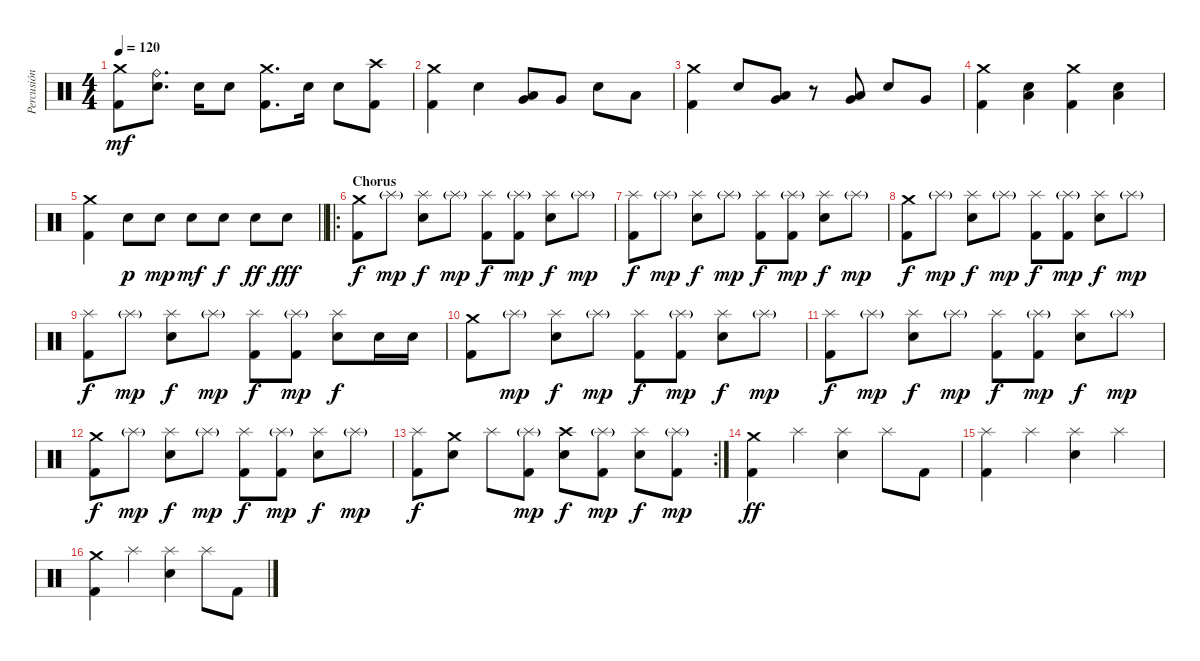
\track ("Percusión" "Percusión") {instrument percussion}
\staff {score}
\articulation defaults
\ts (4 4)
\tempo 120
\clef neutral
\ks c
("Crash medium (hit)" "Kick (hit) 2").8{dy mf} ("Ride (bell)" "Electric Snare (hit)").8{d} "Electric Snare (hit)".16 "Electric Snare (hit)".8 ("Crash medium (hit)" "Kick (hit) 2").8{d} "Electric Snare (hit)".16 "Electric Snare (hit)".8 ("Crash high (hit)" "Kick (hit) 2").8 |
("Crash medium (hit)" "Kick (hit) 2").4 "Electric Snare (hit)".4 ("Very Low Tom (hit)" "Low Tom (hit)").8 "Very Low Tom (hit)".8 "Electric Snare (hit)".8 "Low Tom (hit)".8 |
("Crash medium (hit)" "Kick (hit) 2").4 "Electric Snare (hit)".8 ("Low Tom (hit)" "Very Low Tom (hit)").8 r.8 ("Low Tom (hit)" "Very Low Tom (hit)").8 "Electric Snare (hit)".8 "Very Low Tom (hit)".8 |
("Crash medium (hit)" "Kick (hit) 2").4 ("Low Floor Tom (hit)" "Electric Snare (hit)").4 ("Crash medium (hit)" "Kick (hit) 2").4 ("Low Floor Tom (hit)" "Electric Snare (hit)").4 |
\barLineRight lightlight
("Crash medium (hit)" "Kick (hit) 2").4 "Electric Snare (hit)".8{dy p} "Electric Snare (hit)".8{dy mp} "Electric Snare (hit)".8{dy mf} "Electric Snare (hit)".8{dy f} "Electric Snare (hit)".8{dy ff} "Electric Snare (hit)".8{dy fff} |
\ro
\section ("" "Chorus")
("Crash medium (hit)" "Kick (hit) 2").8{dy f} "Splash (hit)"{g}.8{dy mp} ("Splash (hit)" "Electric Snare (hit)").8{dy f} "Splash (hit)"{g}.8{dy mp} ("Splash (hit)" "Kick (hit) 2").8{dy f} ("Splash (hit)"{g} "Kick (hit) 2").8{dy mp} ("Splash (hit)" "Electric Snare (hit)").8{dy f} "Splash (hit)"{g}.8{dy mp} |
("Splash (hit)" "Kick (hit) 2").8{dy f} "Splash (hit)"{g}.8{dy mp} ("Splash (hit)" "Electric Snare (hit)").8{dy f} "Splash (hit)"{g}.8{dy mp} ("Splash (hit)" "Kick (hit) 2").8{dy f} ("Splash (hit)"{g} "Kick (hit) 2").8{dy mp} ("Splash (hit)" "Electric Snare (hit)").8{dy f} "Splash (hit)"{g}.8{dy mp} |
("Crash medium (hit)" "Kick (hit) 2").8{dy f} "Splash (hit)"{g}.8{dy mp} ("Splash (hit)" "Electric Snare (hit)").8{dy f} "Splash (hit)"{g}.8{dy mp} ("Splash (hit)" "Kick (hit) 2").8{dy f} ("Splash (hit)"{g} "Kick (hit) 2").8{dy mp} ("Splash (hit)" "Electric Snare (hit)").8{dy f} "Splash (hit)"{g}.8{dy mp} |
("Splash (hit)" "Kick (hit) 2").8{dy f} "Splash (hit)"{g}.8{dy mp} ("Splash (hit)" "Electric Snare (hit)").8{dy f} "Splash (hit)"{g}.8{dy mp} ("Splash (hit)" "Kick (hit) 2").8{dy f} ("Splash (hit)"{g} "Kick (hit) 2").8{dy mp} ("Splash (hit)" "Electric Snare (hit)").8{dy f} "Electric Snare (hit)".16 "Electric Snare (hit)".16 |
("Crash medium (hit)" "Kick (hit) 2").8 "Splash (hit)"{g}.8{dy mp} ("Splash (hit)" "Electric Snare (hit)").8{dy f} "Splash (hit)"{g}.8{dy mp} ("Splash (hit)" "Kick (hit) 2").8{dy f} ("Splash (hit)"{g} "Kick (hit) 2").8{dy mp} ("Splash (hit)" "Electric Snare (hit)").8{dy f} "Splash (hit)"{g}.8{dy mp} |
("Splash (hit)" "Kick (hit) 2").8{dy f} "Splash (hit)"{g}.8{dy mp} ("Splash (hit)" "Electric Snare (hit)").8{dy f} "Splash (hit)"{g}.8{dy mp} ("Splash (hit)" "Kick (hit) 2").8{dy f} ("Splash (hit)"{g} "Kick (hit) 2").8{dy mp} ("Splash (hit)" "Electric Snare (hit)").8{dy f} "Splash (hit)"{g}.8{dy mp} |
("Crash medium (hit)" "Kick (hit) 2").8{dy f} "Splash (hit)"{g}.8{dy mp} ("Splash (hit)" "Electric Snare (hit)").8{dy f} "Splash (hit)"{g}.8{dy mp} ("Splash (hit)" "Kick (hit) 2").8{dy f} ("Splash (hit)"{g} "Kick (hit) 2").8{dy mp} ("Splash (hit)" "Electric Snare (hit)").8{dy f} "Splash (hit)"{g}.8{dy mp} |
\rc 2
("Splash (hit)" "Kick (hit) 2").8{dy f} ("Crash medium (hit)" "Electric Snare (hit)").8 "Splash (hit)".8 ("Splash (hit)"{g} "Kick (hit) 2").8{dy mp} ("Crash high (hit)" "Electric Snare (hit)").8{dy f} ("Splash (hit)"{g} "Kick (hit) 2").8{dy mp} ("Splash (hit)" "Electric Snare (hit)").8{dy f} ("Splash (hit)"{g} "Kick (hit) 2").8{dy mp} |
("Crash medium (hit)" "Kick (hit) 2").4{dy ff} "Splash (hit)".4 ("Splash (hit)" "Electric Snare (hit)").4 "Splash (hit)".8 "Kick (hit) 2".8 |
("Splash (hit)" "Kick (hit) 2").4 "Splash (hit)".4 ("Splash (hit)" "Electric Snare (hit)").4 "Splash (hit)".4 |
("Crash medium (hit)" "Kick (hit) 2").4 "Splash (hit)".4 ("Splash (hit)" "Electric Snare (hit)").4 "Splash (hit)".8 "Kick (hit) 2".8
